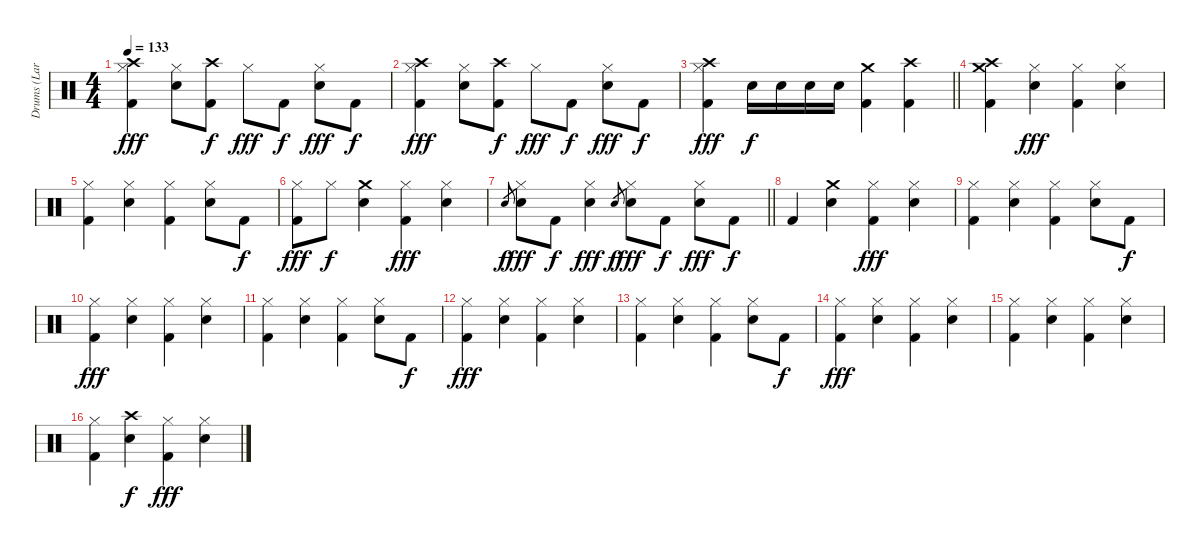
\track ("Drums (Lars)" "Drums (Lar") {instrument percussion}
\staff {score}
\articulation defaults
\ts (4 4)
\tempo 133
\clef neutral
\ks c
("Crash high (hit)" "Hi-Hat (closed)" "Kick (hit) 2").4{dy fff} ("Hi-Hat (closed)" "Snare (hit) 2").8 ("Crash high (hit)" "Kick (hit) 2").8{dy f} "Hi-Hat (closed)".8{dy fff} "Kick (hit) 2".8{dy f} ("Hi-Hat (closed)" "Snare (hit) 2").8{dy fff} "Kick (hit) 2".8{dy f} |
("Crash high (hit)" "Hi-Hat (closed)" "Kick (hit) 2").4{dy fff} ("Hi-Hat (closed)" "Snare (hit) 2").8 ("Crash high (hit)" "Kick (hit) 2").8{dy f} "Hi-Hat (closed)".8{dy fff} "Kick (hit) 2".8{dy f} ("Hi-Hat (closed)" "Snare (hit) 2").8{dy fff} "Kick (hit) 2".8{dy f} |
\barLineRight lightlight
("Crash high (hit)" "Hi-Hat (closed)" "Kick (hit) 2").4{dy fff} "Snare (hit) 2".16{dy f} "Snare (hit) 2".16 "Snare (hit) 2".16 "Snare (hit) 2".16 ("Crash medium (hit)" "Kick (hit) 2").4 ("Crash high (hit)" "Kick (hit) 2").4 |
("Crash high (hit)" "Crash medium (hit)" "Kick (hit) 2").4 ("Hi-Hat (closed)" "Snare (hit) 2").4{dy fff} ("Hi-Hat (closed)" "Kick (hit) 2").4 ("Hi-Hat (closed)" "Snare (hit) 2").4 |
("Hi-Hat (closed)" "Kick (hit) 2").4 ("Hi-Hat (closed)" "Snare (hit) 2").4 ("Hi-Hat (closed)" "Kick (hit) 2").4 ("Hi-Hat (closed)" "Snare (hit) 2").8 "Kick (hit) 2".8{dy f} |
("Hi-Hat (closed)" "Kick (hit) 2").8{dy fff} "Hi-Hat (closed)".8{dy f} ("Crash medium (hit)" "Snare (hit) 2").4 ("Hi-Hat (closed)" "Kick (hit) 2").4{dy fff} ("Hi-Hat (closed)" "Snare (hit) 2").4 |
\barLineRight lightlight "Snare (hit) 2".8{gr dy f}
("Hi-Hat (closed)" "Snare (hit) 2").8{dy fff} "Kick (hit) 2".8{dy f} ("Hi-Hat (closed)" "Snare (hit) 2").4{dy fff} "Snare (hit) 2".8{gr dy f} ("Hi-Hat (closed)" "Snare (hit) 2").8{dy fff} "Kick (hit) 2".8{dy f} ("Hi-Hat (closed)" "Snare (hit) 2").8{dy fff} "Kick (hit) 2".8{dy f} |
"Kick (hit) 2".4 ("Crash medium (hit)" "Snare (hit) 2").4 ("Hi-Hat (closed)" "Kick (hit) 2").4{dy fff} ("Hi-Hat (closed)" "Snare (hit) 2").4 |
("Hi-Hat (closed)" "Kick (hit) 2").4 ("Hi-Hat (closed)" "Snare (hit) 2").4 ("Hi-Hat (closed)" "Kick (hit) 2").4 ("Hi-Hat (closed)" "Snare (hit) 2").8 "Kick (hit) 2".8{dy f} |
("Hi-Hat (closed)" "Kick (hit) 2").4{dy fff} ("Hi-Hat (closed)" "Snare (hit) 2").4 ("Hi-Hat (closed)" "Kick (hit) 2").4 ("Hi-Hat (closed)" "Snare (hit) 2").4 |
("Hi-Hat (closed)" "Kick (hit) 2").4 ("Hi-Hat (closed)" "Snare (hit) 2").4 ("Hi-Hat (closed)" "Kick (hit) 2").4 ("Hi-Hat (closed)" "Snare (hit) 2").8 "Kick (hit) 2".8{dy f} |
("Hi-Hat (closed)" "Kick (hit) 2").4{dy fff} ("Hi-Hat (closed)" "Snare (hit) 2").4 ("Hi-Hat (closed)" "Kick (hit) 2").4 ("Hi-Hat (closed)" "Snare (hit) 2").4 |
("Hi-Hat (closed)" "Kick (hit) 2").4 ("Hi-Hat (closed)" "Snare (hit) 2").4 ("Hi-Hat (closed)" "Kick (hit) 2").4 ("Hi-Hat (closed)" "Snare (hit) 2").8 "Kick (hit) 2".8{dy f} |
("Hi-Hat (closed)" "Kick (hit) 2").4{dy fff} ("Hi-Hat (closed)" "Snare (hit) 2").4 ("Hi-Hat (closed)" "Kick (hit) 2").4 ("Hi-Hat (closed)" "Snare (hit) 2").4 |
("Hi-Hat (closed)" "Kick (hit) 2").4 ("Hi-Hat (closed)" "Snare (hit) 2").4 ("Hi-Hat (closed)" "Kick (hit) 2").4 ("Hi-Hat (closed)" "Snare (hit) 2").4 |
("Hi-Hat (closed)" "Kick (hit) 2").4 ("Crash high (hit)" "Snare (hit) 2").4{dy f} ("Hi-Hat (closed)" "Kick (hit) 2").4{dy fff} ("Hi-Hat (closed)" "Snare (hit) 2").4
